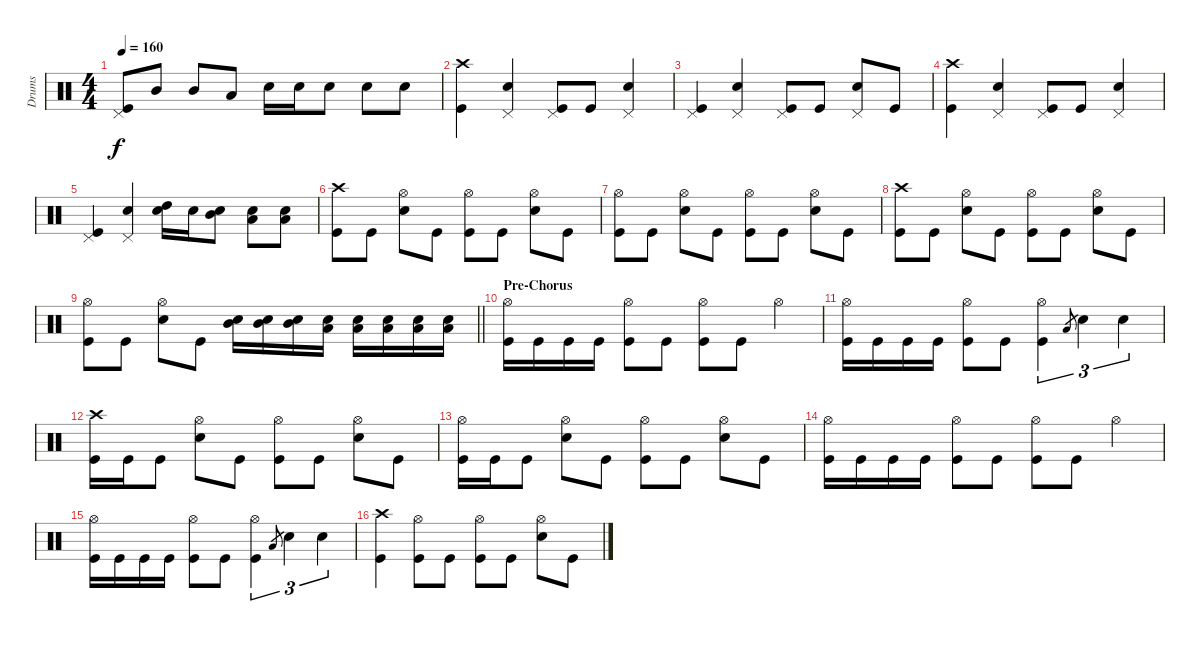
\track ("Drums " "Drums ") {instrument percussion}
\staff {score}
\articulation defaults
\ts (4 4)
\tempo 160
\clef neutral
\ks c
("Pedal Hi-Hat (hit)" "Kick (hit)").8{dy f} "Mid Tom (hit)".8 "Mid Tom (hit)".8 "Low Tom (hit)".8 "Electric Snare (hit)".16 "Electric Snare (hit)".16 "Electric Snare (hit)".8 "Electric Snare (hit)".8 "Electric Snare (hit)".8 |
("Crash high (hit)" "Kick (hit)").4 ("Pedal Hi-Hat (hit)" "Electric Snare (hit)").4 ("Pedal Hi-Hat (hit)" "Kick (hit)").8 "Kick (hit)".8 ("Pedal Hi-Hat (hit)" "Electric Snare (hit)").4 |
("Pedal Hi-Hat (hit)" "Kick (hit)").4 ("Pedal Hi-Hat (hit)" "Electric Snare (hit)").4 ("Pedal Hi-Hat (hit)" "Kick (hit)").8 "Kick (hit)".8 ("Pedal Hi-Hat (hit)" "Electric Snare (hit)").8 "Kick (hit)".8 |
("Crash high (hit)" "Kick (hit)").4 ("Pedal Hi-Hat (hit)" "Electric Snare (hit)").4 ("Pedal Hi-Hat (hit)" "Kick (hit)").8 "Kick (hit)".8 ("Pedal Hi-Hat (hit)" "Electric Snare (hit)").4 |
("Pedal Hi-Hat (hit)" "Kick (hit)").4 ("Pedal Hi-Hat (hit)" "Electric Snare (hit)").4 ("High Tom (hit)" "Electric Snare (hit)").16 "Electric Snare (hit)".16 ("Mid Tom (hit)" "Electric Snare (hit)").8 ("Low Floor Tom (hit)" "Electric Snare (hit)").8 ("Low Floor Tom (hit)" "Electric Snare (hit)").8 |
("Crash high (hit)" "Kick (hit)").8 "Kick (hit)".8 ("Hi-Hat (open)" "Electric Snare (hit)").8 "Kick (hit)".8 ("Hi-Hat (open)" "Kick (hit)").8 "Kick (hit)".8 ("Hi-Hat (open)" "Electric Snare (hit)").8 "Kick (hit)".8 |
("Hi-Hat (open)" "Kick (hit)").8 "Kick (hit)".8 ("Hi-Hat (open)" "Electric Snare (hit)").8 "Kick (hit)".8 ("Hi-Hat (open)" "Kick (hit)").8 "Kick (hit)".8 ("Hi-Hat (open)" "Electric Snare (hit)").8 "Kick (hit)".8 |
("Crash high (hit)" "Kick (hit)").8 "Kick (hit)".8 ("Hi-Hat (open)" "Electric Snare (hit)").8 "Kick (hit)".8 ("Hi-Hat (open)" "Kick (hit)").8 "Kick (hit)".8 ("Hi-Hat (open)" "Electric Snare (hit)").8 "Kick (hit)".8 |
\barLineRight lightlight
("Hi-Hat (open)" "Kick (hit)").8 "Kick (hit)".8 ("Hi-Hat (open)" "Electric Snare (hit)").8 "Kick (hit)".8 ("Mid Tom (hit)" "Electric Snare (hit)").16 ("Mid Tom (hit)" "Electric Snare (hit)").16 ("Mid Tom (hit)" "Electric Snare (hit)").16 ("Low Tom (hit)" "Electric Snare (hit)").16 ("Low Tom (hit)" "Electric Snare (hit)").16 ("Low Tom (hit)" "Electric Snare (hit)").16 ("Low Floor Tom (hit)" "Electric Snare (hit)").16 ("Low Floor Tom (hit)" "Electric Snare (hit)").16 |
\section ("" "Pre-Chorus ")
("Hi-Hat (open)" "Kick (hit)").16 "Kick (hit)".16 "Kick (hit)".16 "Kick (hit)".16 ("Hi-Hat (open)" "Kick (hit)").8 "Kick (hit)".8 ("Hi-Hat (open)" "Kick (hit)").8 "Kick (hit)".8 "Hi-Hat (open)".4 |
("Hi-Hat (open)" "Kick (hit)").16 "Kick (hit)".16 "Kick (hit)".16 "Kick (hit)".16 ("Hi-Hat (open)" "Kick (hit)").8 "Kick (hit)".8 ("Hi-Hat (open)" "Kick (hit)").4{tu (3 2)} "Low Floor Tom (hit)".8{gr} "Electric Snare (hit)".4{tu (3 2)} "Electric Snare (hit)".4{tu (3 2)} |
("Crash high (hit)" "Kick (hit)").16 "Kick (hit)".16 "Kick (hit)".8 ("Hi-Hat (open)" "Electric Snare (hit)").8 "Kick (hit)".8 ("Hi-Hat (open)" "Kick (hit)").8 "Kick (hit)".8 ("Hi-Hat (open)" "Electric Snare (hit)").8 "Kick (hit)".8 |
("Hi-Hat (open)" "Kick (hit)").16 "Kick (hit)".16 "Kick (hit)".8 ("Hi-Hat (open)" "Electric Snare (hit)").8 "Kick (hit)".8 ("Hi-Hat (open)" "Kick (hit)").8 "Kick (hit)".8 ("Hi-Hat (open)" "Electric Snare (hit)").8 "Kick (hit)".8 |
("Hi-Hat (open)" "Kick (hit)").16 "Kick (hit)".16 "Kick (hit)".16 "Kick (hit)".16 ("Hi-Hat (open)" "Kick (hit)").8 "Kick (hit)".8 ("Hi-Hat (open)" "Kick (hit)").8 "Kick (hit)".8 "Hi-Hat (open)".4 |
("Hi-Hat (open)" "Kick (hit)").16 "Kick (hit)".16 "Kick (hit)".16 "Kick (hit)".16 ("Hi-Hat (open)" "Kick (hit)").8 "Kick (hit)".8 ("Hi-Hat (open)" "Kick (hit)").4{tu (3 2)} "Low Floor Tom (hit)".8{gr} "Electric Snare (hit)".4{tu (3 2)} "Electric Snare (hit)".4{tu (3 2)} |
("Crash high (hit)" "Kick (hit)").4 ("Hi-Hat (open)" "Kick (hit)").8 "Kick (hit)".8 ("Hi-Hat (open)" "Kick (hit)").8 "Kick (hit)".8 ("Hi-Hat (open)" "Electric Snare (hit)").8 "Kick (hit)".8
